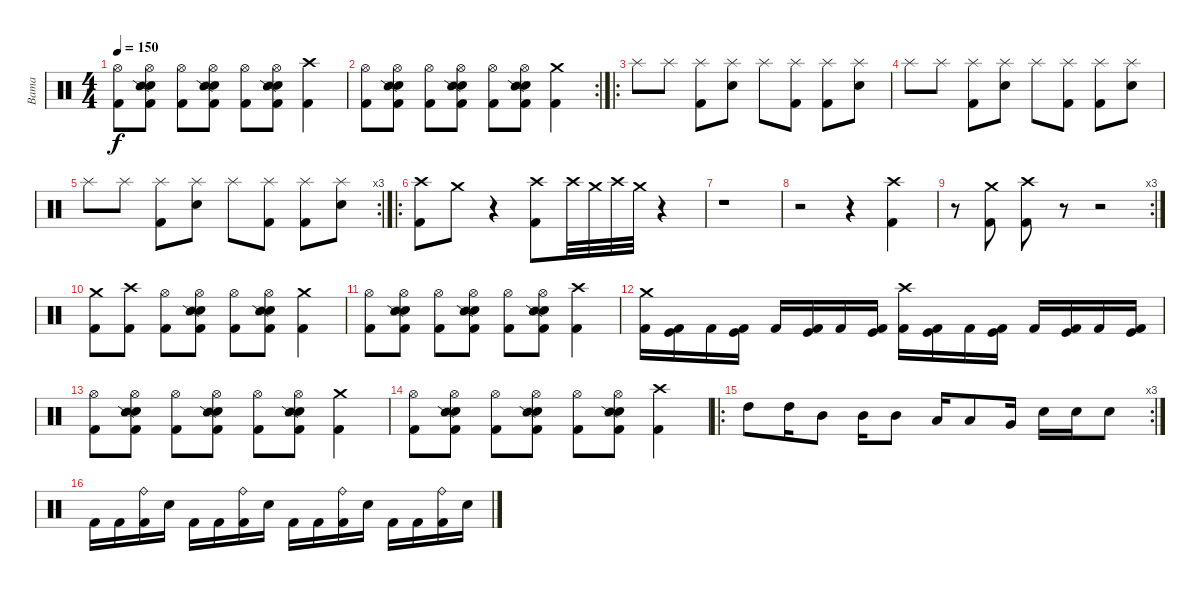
\track ("Bama" "Bama") {instrument percussion}
\staff {score}
\articulation defaults
\ts (4 4)
\tempo 150
\clef neutral
\ks c
("Hi-Hat (open)" "Kick (hit) 2").8{dy f} ("Hi-Hat (open)" "Electric Snare (hit)" "Snare (side stick) 2" "Kick (hit) 2").8 ("Hi-Hat (open)" "Kick (hit) 2").8 ("Hi-Hat (open)" "Electric Snare (hit)" "Snare (side stick) 2" "Kick (hit) 2").8 ("Hi-Hat (open)" "Kick (hit) 2").8 ("Hi-Hat (open)" "Electric Snare (hit)" "Snare (side stick) 2" "Kick (hit) 2").8 ("Crash high (hit)" "Kick (hit) 2").4 |
\rc 2
("Hi-Hat (open)" "Kick (hit) 2").8 ("Hi-Hat (open)" "Electric Snare (hit)" "Snare (side stick) 2" "Kick (hit) 2").8 ("Hi-Hat (open)" "Kick (hit) 2").8 ("Hi-Hat (open)" "Electric Snare (hit)" "Snare (side stick) 2" "Kick (hit) 2").8 ("Hi-Hat (open)" "Kick (hit) 2").8 ("Hi-Hat (open)" "Electric Snare (hit)" "Snare (side stick) 2" "Kick (hit) 2").8 ("Crash medium (hit)" "Kick (hit) 2").4 |
\ro "Splash (hit)".8 "Splash (hit)".8
("Splash (hit)" "Kick (hit) 2").8 ("Splash (hit)" "Electric Snare (hit)").8 "Splash (hit)".8 ("Splash (hit)" "Kick (hit) 2").8 ("Splash (hit)" "Kick (hit) 2").8 ("Splash (hit)" "Electric Snare (hit)").8 |
"Splash (hit)".8 "Splash (hit)".8 ("Splash (hit)" "Kick (hit) 2").8 ("Splash (hit)" "Electric Snare (hit)").8 "Splash (hit)".8 ("Splash (hit)" "Kick (hit) 2").8 ("Splash (hit)" "Kick (hit) 2").8 ("Splash (hit)" "Electric Snare (hit)").8 |
\rc 3 "Splash (hit)".8 "Splash (hit)".8
("Splash (hit)" "Kick (hit) 2").8 ("Splash (hit)" "Electric Snare (hit)").8 "Splash (hit)".8 ("Splash (hit)" "Kick (hit) 2").8 ("Splash (hit)" "Kick (hit) 2").8 ("Splash (hit)" "Electric Snare (hit)").8 |
\ro
("Crash high (hit)" "Kick (hit) 2").8 "Crash medium (hit)".8 r.4 ("Crash high (hit)" "Kick (hit) 2").8 "Crash high (hit)".32 "Crash medium (hit)".32 "Crash high (hit)".32 "Crash medium (hit)".32 r.4 |
r.1 |
r.2 r.4 ("Crash high (hit)" "Kick (hit) 2").4 |
\rc 3
r.8 ("Crash medium (hit)" "Kick (hit) 2").8 ("Crash high (hit)" "Kick (hit) 2").8 r.8 r.2 |
("Crash medium (hit)" "Kick (hit) 2").8 ("Crash high (hit)" "Kick (hit) 2").8 ("Hi-Hat (open)" "Kick (hit) 2").8 ("Hi-Hat (open)" "Electric Snare (hit)" "Snare (side stick) 2" "Kick (hit) 2").8 ("Hi-Hat (open)" "Kick (hit) 2").8 ("Hi-Hat (open)" "Electric Snare (hit)" "Snare (side stick) 2" "Kick (hit) 2").8 ("Crash medium (hit)" "Kick (hit) 2").4 |
("Hi-Hat (open)" "Kick (hit) 2").8 ("Hi-Hat (open)" "Electric Snare (hit)" "Snare (side stick) 2" "Kick (hit) 2").8 ("Hi-Hat (open)" "Kick (hit) 2").8 ("Hi-Hat (open)" "Electric Snare (hit)" "Snare (side stick) 2" "Kick (hit) 2").8 ("Hi-Hat (open)" "Kick (hit) 2").8 ("Hi-Hat (open)" "Electric Snare (hit)" "Snare (side stick) 2" "Kick (hit) 2").8 ("Crash high (hit)" "Kick (hit) 2").4 |
("Crash medium (hit)" "Kick (hit) 2").16 ("Kick (hit)" "Kick (hit) 2").16 "Kick (hit) 2".16 ("Kick (hit)" "Kick (hit) 2").16 "Kick (hit) 2".16 ("Kick (hit)" "Kick (hit) 2").16 "Kick (hit) 2".16 ("Kick (hit)" "Kick (hit) 2").16 ("Crash high (hit)" "Kick (hit) 2").16 ("Kick (hit)" "Kick (hit) 2").16 "Kick (hit) 2".16 ("Kick (hit)" "Kick (hit) 2").16 "Kick (hit) 2".16 ("Kick (hit)" "Kick (hit) 2").16 "Kick (hit) 2".16 ("Kick (hit)" "Kick (hit) 2").16 |
("Hi-Hat (open)" "Kick (hit) 2").8 ("Hi-Hat (open)" "Electric Snare (hit)" "Snare (side stick) 2" "Kick (hit) 2").8 ("Hi-Hat (open)" "Kick (hit) 2").8 ("Hi-Hat (open)" "Electric Snare (hit)" "Snare (side stick) 2" "Kick (hit) 2").8 ("Hi-Hat (open)" "Kick (hit) 2").8 ("Hi-Hat (open)" "Electric Snare (hit)" "Snare (side stick) 2" "Kick (hit) 2").8 ("Crash medium (hit)" "Kick (hit) 2").4 |
("Hi-Hat (open)" "Kick (hit) 2").8 ("Hi-Hat (open)" "Electric Snare (hit)" "Snare (side stick) 2" "Kick (hit) 2").8 ("Hi-Hat (open)" "Kick (hit) 2").8 ("Hi-Hat (open)" "Electric Snare (hit)" "Snare (side stick) 2" "Kick (hit) 2").8 ("Hi-Hat (open)" "Kick (hit) 2").8 ("Hi-Hat (open)" "Electric Snare (hit)" "Snare (side stick) 2" "Kick (hit) 2").8 ("Crash high (hit)" "Kick (hit) 2").4 |
\ro
\rc 3 "High Tom (hit)".8 "High Tom (hit)".16 "Mid Tom (hit)".8 "Mid Tom (hit)".16 "Mid Tom (hit)".8 "Low Tom (hit)".16 "Low Tom (hit)".8 "Very Low Tom (hit)".16 "Electric Snare (hit)".16 "Electric Snare (hit)".16 "Electric Snare (hit)".8
|
"Kick (hit) 2".16 "Kick (hit) 2".16 ("Ride (bell)" "Kick (hit) 2").16 "Electric Snare (hit)".16 "Kick (hit) 2".16 "Kick (hit) 2".16 ("Ride (bell)" "Kick (hit) 2").16 "Electric Snare (hit)".16 "Kick (hit) 2".16 "Kick (hit) 2".16 ("Ride (bell)" "Kick (hit) 2").16 "Electric Snare (hit)".16 "Kick (hit) 2".16 "Kick (hit) 2".16 ("Ride (bell)" "Kick (hit) 2").16 "Electric Snare (hit)".16
